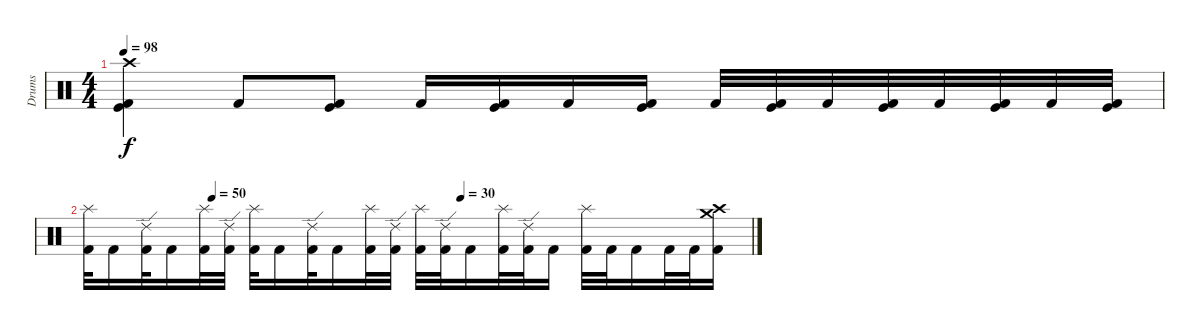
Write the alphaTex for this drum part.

\track ("Drums" "Drums") {instrument percussion}
\staff {score}
\articulation defaults
\ts (4 4)
\tempo 98
\clef neutral
\ks c
("Crash high (hit)" "Kick (hit)" "Kick (hit) 2").4{dy f} "Kick (hit) 2".8 ("Kick (hit)" "Kick (hit) 2").8 "Kick (hit) 2".16 ("Kick (hit)" "Kick (hit) 2").16 "Kick (hit) 2".16 ("Kick (hit)" "Kick (hit) 2").16 "Kick (hit) 2".32 ("Kick (hit)" "Kick (hit) 2").32 "Kick (hit) 2".32 ("Kick (hit)" "Kick (hit) 2").32 "Kick (hit) 2".32 ("Kick (hit)" "Kick (hit) 2").32 "Kick (hit) 2".32 ("Kick (hit)" "Kick (hit) 2").32 |
\tempo (50 0.1875)
\tempo (30 0.5625)
("Splash (hit)" "Kick (hit) 2").32 "Kick (hit) 2".16 ("Ride (edge) 2" "Kick (hit) 2").32 "Kick (hit) 2".16 ("Splash (hit)" "Kick (hit) 2").32 ("Ride (edge) 2" "Kick (hit) 2").32 ("Splash (hit)" "Kick (hit) 2").32 "Kick (hit) 2".16 ("Ride (edge) 2" "Kick (hit) 2").32 "Kick (hit) 2".16 ("Splash (hit)" "Kick (hit) 2").32 ("Ride (edge) 2" "Kick (hit) 2").32 ("Splash (hit)" "Kick (hit) 2").32 ("Ride (edge) 2" "Kick (hit) 2").32 "Kick (hit) 2".16 ("Splash (hit)" "Kick (hit) 2").32 ("Ride (edge) 2" "Kick (hit) 2").32 "Kick (hit) 2".16 ("Splash (hit)" "Kick (hit) 2").32 "Kick (hit) 2".32 "Kick (hit) 2".16 "Kick (hit) 2".32 "Kick (hit) 2".32 ("Crash medium (hit)" "Crash high (hit)" "Kick (hit) 2").16
